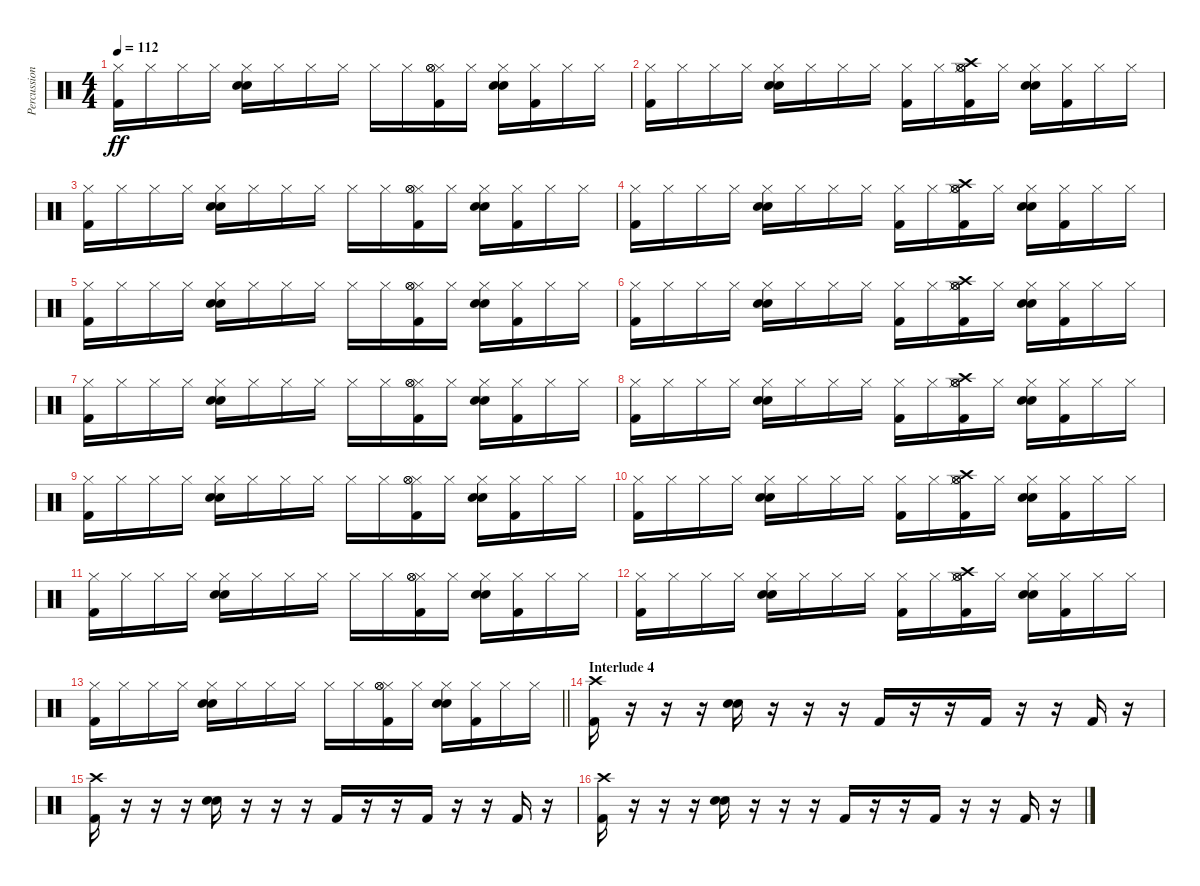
\track ("Percussion" "Percussion") {instrument percussion}
\staff {score}
\articulation defaults
\ts (4 4)
\tempo 112
\clef neutral
\ks c
("Kick (hit) 2" "Hi-Hat (closed)").16{dy ff} "Hi-Hat (closed)".16 "Hi-Hat (closed)".16 "Hi-Hat (closed)".16 ("Snare (hit) 2" "Hi-Hat (closed)" "Hand Clap (hit)").16 "Hi-Hat (closed)".16 "Hi-Hat (closed)".16 "Hi-Hat (closed)".16 "Hi-Hat (closed)".16 "Hi-Hat (closed)".16 ("Kick (hit) 2" "Hi-Hat (closed)" "Hi-Hat (open)" "Hi-Hat (open)").16 "Hi-Hat (closed)".16 ("Snare (hit) 2" "Hi-Hat (closed)" "Hand Clap (hit)").16 ("Kick (hit) 2" "Hi-Hat (closed)").16 "Hi-Hat (closed)".16 "Hi-Hat (closed)".16 |
("Kick (hit) 2" "Hi-Hat (closed)").16 "Hi-Hat (closed)".16 "Hi-Hat (closed)".16 "Hi-Hat (closed)".16 ("Snare (hit) 2" "Hi-Hat (closed)" "Hand Clap (hit)").16 "Hi-Hat (closed)".16 "Hi-Hat (closed)".16 "Hi-Hat (closed)".16 ("Kick (hit) 2" "Hi-Hat (closed)").16 "Hi-Hat (closed)".16 ("Kick (hit) 2" "Crash high (hit)" "Hi-Hat (closed)" "Hi-Hat (open)" "Hi-Hat (open)").16 "Hi-Hat (closed)".16 ("Snare (hit) 2" "Hi-Hat (closed)" "Hand Clap (hit)").16 ("Kick (hit) 2" "Hi-Hat (closed)").16 "Hi-Hat (closed)".16 "Hi-Hat (closed)".16 |
("Kick (hit) 2" "Hi-Hat (closed)").16 "Hi-Hat (closed)".16 "Hi-Hat (closed)".16 "Hi-Hat (closed)".16 ("Snare (hit) 2" "Hi-Hat (closed)" "Hand Clap (hit)").16 "Hi-Hat (closed)".16 "Hi-Hat (closed)".16 "Hi-Hat (closed)".16 "Hi-Hat (closed)".16 "Hi-Hat (closed)".16 ("Kick (hit) 2" "Hi-Hat (closed)" "Hi-Hat (open)" "Hi-Hat (open)").16 "Hi-Hat (closed)".16 ("Snare (hit) 2" "Hi-Hat (closed)" "Hand Clap (hit)").16 ("Kick (hit) 2" "Hi-Hat (closed)").16 "Hi-Hat (closed)".16 "Hi-Hat (closed)".16 |
("Kick (hit) 2" "Hi-Hat (closed)").16 "Hi-Hat (closed)".16 "Hi-Hat (closed)".16 "Hi-Hat (closed)".16 ("Snare (hit) 2" "Hi-Hat (closed)" "Hand Clap (hit)").16 "Hi-Hat (closed)".16 "Hi-Hat (closed)".16 "Hi-Hat (closed)".16 ("Kick (hit) 2" "Hi-Hat (closed)").16 "Hi-Hat (closed)".16 ("Kick (hit) 2" "Crash high (hit)" "Hi-Hat (closed)" "Hi-Hat (open)" "Hi-Hat (open)").16 "Hi-Hat (closed)".16 ("Snare (hit) 2" "Hi-Hat (closed)" "Hand Clap (hit)").16 ("Kick (hit) 2" "Hi-Hat (closed)").16 "Hi-Hat (closed)".16 "Hi-Hat (closed)".16 |
("Kick (hit) 2" "Hi-Hat (closed)").16 "Hi-Hat (closed)".16 "Hi-Hat (closed)".16 "Hi-Hat (closed)".16 ("Snare (hit) 2" "Hi-Hat (closed)" "Hand Clap (hit)").16 "Hi-Hat (closed)".16 "Hi-Hat (closed)".16 "Hi-Hat (closed)".16 "Hi-Hat (closed)".16 "Hi-Hat (closed)".16 ("Kick (hit) 2" "Hi-Hat (closed)" "Hi-Hat (open)" "Hi-Hat (open)").16 "Hi-Hat (closed)".16 ("Snare (hit) 2" "Hi-Hat (closed)" "Hand Clap (hit)").16 ("Kick (hit) 2" "Hi-Hat (closed)").16 "Hi-Hat (closed)".16 "Hi-Hat (closed)".16 |
("Kick (hit) 2" "Hi-Hat (closed)").16 "Hi-Hat (closed)".16 "Hi-Hat (closed)".16 "Hi-Hat (closed)".16 ("Snare (hit) 2" "Hi-Hat (closed)" "Hand Clap (hit)").16 "Hi-Hat (closed)".16 "Hi-Hat (closed)".16 "Hi-Hat (closed)".16 ("Kick (hit) 2" "Hi-Hat (closed)").16 "Hi-Hat (closed)".16 ("Kick (hit) 2" "Crash high (hit)" "Hi-Hat (closed)" "Hi-Hat (open)" "Hi-Hat (open)").16 "Hi-Hat (closed)".16 ("Snare (hit) 2" "Hi-Hat (closed)" "Hand Clap (hit)").16 ("Kick (hit) 2" "Hi-Hat (closed)").16 "Hi-Hat (closed)".16 "Hi-Hat (closed)".16 |
("Kick (hit) 2" "Hi-Hat (closed)").16 "Hi-Hat (closed)".16 "Hi-Hat (closed)".16 "Hi-Hat (closed)".16 ("Snare (hit) 2" "Hi-Hat (closed)" "Hand Clap (hit)").16 "Hi-Hat (closed)".16 "Hi-Hat (closed)".16 "Hi-Hat (closed)".16 "Hi-Hat (closed)".16 "Hi-Hat (closed)".16 ("Kick (hit) 2" "Hi-Hat (closed)" "Hi-Hat (open)" "Hi-Hat (open)").16 "Hi-Hat (closed)".16 ("Snare (hit) 2" "Hi-Hat (closed)" "Hand Clap (hit)").16 ("Kick (hit) 2" "Hi-Hat (closed)").16 "Hi-Hat (closed)".16 "Hi-Hat (closed)".16 |
("Kick (hit) 2" "Hi-Hat (closed)").16 "Hi-Hat (closed)".16 "Hi-Hat (closed)".16 "Hi-Hat (closed)".16 ("Snare (hit) 2" "Hi-Hat (closed)" "Hand Clap (hit)").16 "Hi-Hat (closed)".16 "Hi-Hat (closed)".16 "Hi-Hat (closed)".16 ("Kick (hit) 2" "Hi-Hat (closed)").16 "Hi-Hat (closed)".16 ("Kick (hit) 2" "Crash high (hit)" "Hi-Hat (closed)" "Hi-Hat (open)" "Hi-Hat (open)").16 "Hi-Hat (closed)".16 ("Snare (hit) 2" "Hi-Hat (closed)" "Hand Clap (hit)").16 ("Kick (hit) 2" "Hi-Hat (closed)").16 "Hi-Hat (closed)".16 "Hi-Hat (closed)".16 |
("Kick (hit) 2" "Hi-Hat (closed)").16 "Hi-Hat (closed)".16 "Hi-Hat (closed)".16 "Hi-Hat (closed)".16 ("Snare (hit) 2" "Hi-Hat (closed)" "Hand Clap (hit)").16 "Hi-Hat (closed)".16 "Hi-Hat (closed)".16 "Hi-Hat (closed)".16 "Hi-Hat (closed)".16 "Hi-Hat (closed)".16 ("Kick (hit) 2" "Hi-Hat (closed)" "Hi-Hat (open)" "Hi-Hat (open)").16 "Hi-Hat (closed)".16 ("Snare (hit) 2" "Hi-Hat (closed)" "Hand Clap (hit)").16 ("Kick (hit) 2" "Hi-Hat (closed)").16 "Hi-Hat (closed)".16 "Hi-Hat (closed)".16 |
("Kick (hit) 2" "Hi-Hat (closed)").16 "Hi-Hat (closed)".16 "Hi-Hat (closed)".16 "Hi-Hat (closed)".16 ("Snare (hit) 2" "Hi-Hat (closed)" "Hand Clap (hit)").16 "Hi-Hat (closed)".16 "Hi-Hat (closed)".16 "Hi-Hat (closed)".16 ("Kick (hit) 2" "Hi-Hat (closed)").16 "Hi-Hat (closed)".16 ("Kick (hit) 2" "Crash high (hit)" "Hi-Hat (closed)" "Hi-Hat (open)" "Hi-Hat (open)").16 "Hi-Hat (closed)".16 ("Snare (hit) 2" "Hi-Hat (closed)" "Hand Clap (hit)").16 ("Kick (hit) 2" "Hi-Hat (closed)").16 "Hi-Hat (closed)".16 "Hi-Hat (closed)".16 |
("Kick (hit) 2" "Hi-Hat (closed)").16 "Hi-Hat (closed)".16 "Hi-Hat (closed)".16 "Hi-Hat (closed)".16 ("Snare (hit) 2" "Hi-Hat (closed)" "Hand Clap (hit)").16 "Hi-Hat (closed)".16 "Hi-Hat (closed)".16 "Hi-Hat (closed)".16 "Hi-Hat (closed)".16 "Hi-Hat (closed)".16 ("Kick (hit) 2" "Hi-Hat (closed)" "Hi-Hat (open)" "Hi-Hat (open)").16 "Hi-Hat (closed)".16 ("Snare (hit) 2" "Hi-Hat (closed)" "Hand Clap (hit)").16 ("Kick (hit) 2" "Hi-Hat (closed)").16 "Hi-Hat (closed)".16 "Hi-Hat (closed)".16 |
("Kick (hit) 2" "Hi-Hat (closed)").16 "Hi-Hat (closed)".16 "Hi-Hat (closed)".16 "Hi-Hat (closed)".16 ("Snare (hit) 2" "Hi-Hat (closed)" "Hand Clap (hit)").16 "Hi-Hat (closed)".16 "Hi-Hat (closed)".16 "Hi-Hat (closed)".16 ("Kick (hit) 2" "Hi-Hat (closed)").16 "Hi-Hat (closed)".16 ("Kick (hit) 2" "Crash high (hit)" "Hi-Hat (closed)" "Hi-Hat (open)" "Hi-Hat (open)").16 "Hi-Hat (closed)".16 ("Snare (hit) 2" "Hi-Hat (closed)" "Hand Clap (hit)").16 ("Kick (hit) 2" "Hi-Hat (closed)").16 "Hi-Hat (closed)".16 "Hi-Hat (closed)".16 |
\barLineRight lightlight
("Kick (hit) 2" "Hi-Hat (closed)").16 "Hi-Hat (closed)".16 "Hi-Hat (closed)".16 "Hi-Hat (closed)".16 ("Snare (hit) 2" "Hi-Hat (closed)" "Hand Clap (hit)").16 "Hi-Hat (closed)".16 "Hi-Hat (closed)".16 "Hi-Hat (closed)".16 "Hi-Hat (closed)".16 "Hi-Hat (closed)".16 ("Kick (hit) 2" "Hi-Hat (closed)" "Hi-Hat (open)" "Hi-Hat (open)").16 "Hi-Hat (closed)".16 ("Snare (hit) 2" "Hi-Hat (closed)" "Hand Clap (hit)").16 ("Kick (hit) 2" "Hi-Hat (closed)").16 "Hi-Hat (closed)".16 "Hi-Hat (closed)".16 |
\section ("" "Interlude 4")
("Kick (hit) 2" "Crash high (hit)").16 r.16 r.16 r.16 ("Snare (hit) 2" "Hand Clap (hit)").16 r.16 r.16 r.16 "Kick (hit) 2".16 r.16 r.16 "Kick (hit) 2".16 r.16 r.16 "Kick (hit) 2".16 r.16 |
("Kick (hit) 2" "Crash high (hit)").16 r.16 r.16 r.16 ("Snare (hit) 2" "Hand Clap (hit)").16 r.16 r.16 r.16 "Kick (hit) 2".16 r.16 r.16 "Kick (hit) 2".16 r.16 r.16 "Kick (hit) 2".16 r.16 |
("Kick (hit) 2" "Crash high (hit)").16 r.16 r.16 r.16 ("Snare (hit) 2" "Hand Clap (hit)").16 r.16 r.16 r.16 "Kick (hit) 2".16 r.16 r.16 "Kick (hit) 2".16 r.16 r.16 "Kick (hit) 2".16 r.16
